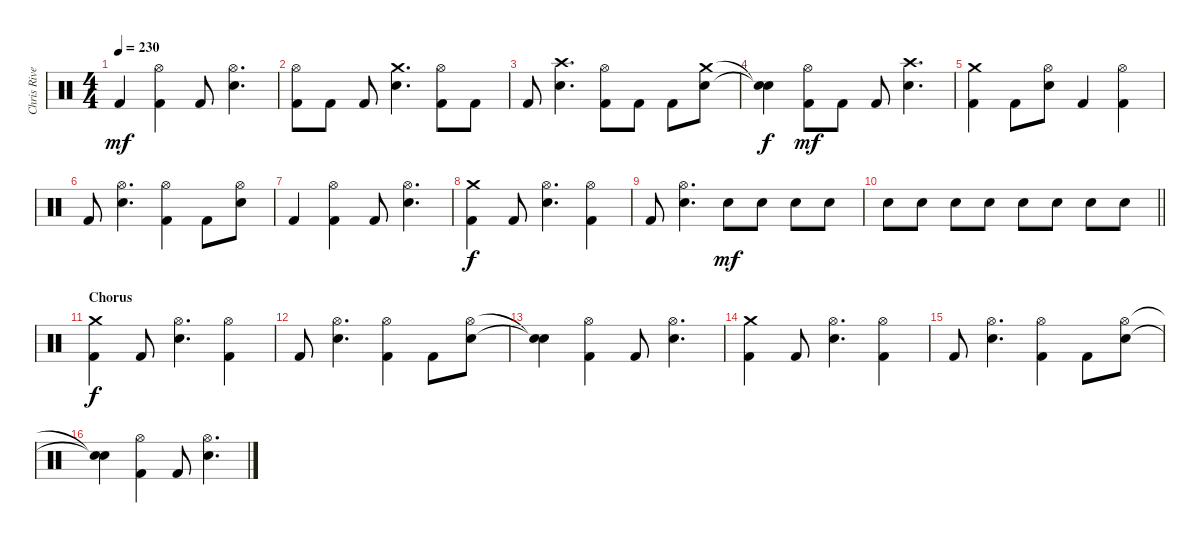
\track ("Chris Rivers" "Chris Rive") {instrument percussion}
\staff {score}
\articulation defaults
\ts (4 4)
\tempo 230
\clef neutral
\ks c "Kick (hit) 2".4{dy mf}
("Hi-Hat (open)" "Kick (hit) 2").4 "Kick (hit) 2".8 ("Hi-Hat (open)" "Electric Snare (hit)").4{d} |
("Hi-Hat (open)" "Kick (hit) 2").8 "Kick (hit) 2".8 "Kick (hit) 2".8 ("Crash medium (hit)" "Electric Snare (hit)").4{d} ("Hi-Hat (open)" "Kick (hit) 2").8 "Kick (hit) 2".8 |
"Kick (hit) 2".8 ("Crash high (hit)" "Electric Snare (hit)").4{d} ("Hi-Hat (open)" "Kick (hit) 2").8 "Kick (hit) 2".8 "Kick (hit) 2".8 ("Crash medium (hit)" "Electric Snare (hit)").8 |
("Snare (hit)"{t} "Snare (hit)"{t}).4{dy f} ("Hi-Hat (open)" "Kick (hit) 2").8{dy mf} "Kick (hit) 2".8 "Kick (hit) 2".8 ("Crash high (hit)" "Electric Snare (hit)").4{d} |
("Crash medium (hit)" "Kick (hit) 2").4 "Kick (hit) 2".8 ("Hi-Hat (open)" "Electric Snare (hit)").8 "Kick (hit) 2".4 ("Hi-Hat (open)" "Kick (hit) 2").4 |
"Kick (hit) 2".8 ("Hi-Hat (open)" "Electric Snare (hit)").4{d} ("Hi-Hat (open)" "Kick (hit) 2").4 "Kick (hit) 2".8 ("Hi-Hat (open)" "Electric Snare (hit)").8 |
"Kick (hit) 2".4 ("Hi-Hat (open)" "Kick (hit) 2").4 "Kick (hit) 2".8 ("Hi-Hat (open)" "Electric Snare (hit)").4{d} |
("Crash medium (hit)" "Kick (hit) 2").4{dy f} "Kick (hit) 2".8 ("Hi-Hat (open)" "Electric Snare (hit)").4{d} ("Hi-Hat (open)" "Kick (hit) 2").4 |
"Kick (hit) 2".8 ("Hi-Hat (open)" "Electric Snare (hit)").4{d} "Electric Snare (hit)".8{dy mf} "Electric Snare (hit)".8 "Electric Snare (hit)".8 "Electric Snare (hit)".8 |
\barLineRight lightlight "Electric Snare (hit)".8 "Electric Snare (hit)".8 "Electric Snare (hit)".8 "Electric Snare (hit)".8 "Electric Snare (hit)".8 "Electric Snare (hit)".8 "Electric Snare (hit)".8 "Electric Snare (hit)".8
|
\section ("" "Chorus")
("Crash medium (hit)" "Kick (hit) 2").4{dy f} "Kick (hit) 2".8 ("Hi-Hat (open)" "Electric Snare (hit)").4{d} ("Hi-Hat (open)" "Kick (hit) 2").4 |
"Kick (hit) 2".8 ("Hi-Hat (open)" "Electric Snare (hit)").4{d} ("Hi-Hat (open)" "Kick (hit) 2").4 "Kick (hit) 2".8 ("Hi-Hat (open)" "Electric Snare (hit)").8 |
("Snare (hit)"{t} "Snare (hit)"{t}).4 ("Hi-Hat (open)" "Kick (hit) 2").4 "Kick (hit) 2".8 ("Hi-Hat (open)" "Electric Snare (hit)").4{d} |
("Crash medium (hit)" "Kick (hit) 2").4 "Kick (hit) 2".8 ("Hi-Hat (open)" "Electric Snare (hit)").4{d} ("Hi-Hat (open)" "Kick (hit) 2").4 |
"Kick (hit) 2".8 ("Hi-Hat (open)" "Electric Snare (hit)").4{d} ("Hi-Hat (open)" "Kick (hit) 2").4 "Kick (hit) 2".8 ("Hi-Hat (open)" "Electric Snare (hit)").8 |
("Snare (hit)"{t} "Snare (hit)"{t}).4 ("Hi-Hat (open)" "Kick (hit) 2").4 "Kick (hit) 2".8 ("Hi-Hat (open)" "Electric Snare (hit)").4{d}
